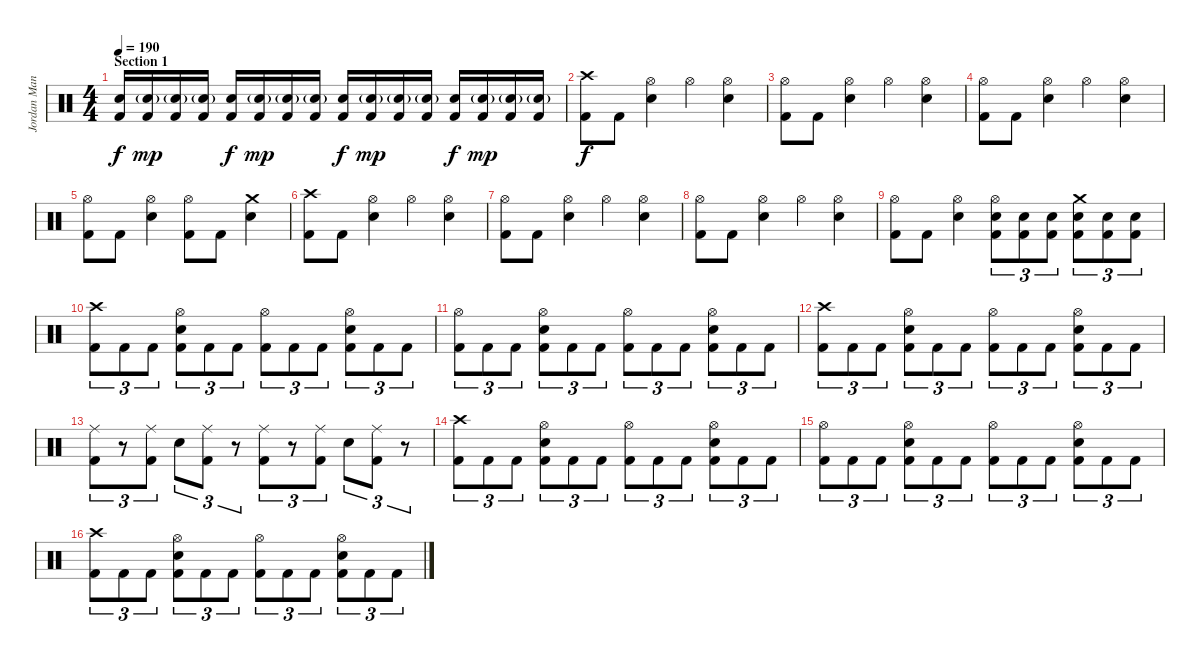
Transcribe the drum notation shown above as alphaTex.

\track ("Jordan Mancino" "Jordan Man") {instrument percussion}
\staff {score}
\articulation defaults
\ts (4 4)
\section ("" "Section 1")
\tempo 190
\clef neutral
\ks c
("Electric Snare (hit)" "Kick (hit) 2").16{dy f} ("Electric Snare (hit)"{g} "Kick (hit) 2").16{dy mp} ("Electric Snare (hit)"{g} "Kick (hit) 2").16 ("Electric Snare (hit)"{g} "Kick (hit) 2").16 ("Electric Snare (hit)" "Kick (hit) 2").16{dy f} ("Electric Snare (hit)"{g} "Kick (hit) 2").16{dy mp} ("Electric Snare (hit)"{g} "Kick (hit) 2").16 ("Electric Snare (hit)"{g} "Kick (hit) 2").16 ("Electric Snare (hit)" "Kick (hit) 2").16{dy f} ("Electric Snare (hit)"{g} "Kick (hit) 2").16{dy mp} ("Electric Snare (hit)"{g} "Kick (hit) 2").16 ("Electric Snare (hit)"{g} "Kick (hit) 2").16 ("Electric Snare (hit)" "Kick (hit) 2").16{dy f} ("Electric Snare (hit)"{g} "Kick (hit) 2").16{dy mp} ("Electric Snare (hit)"{g} "Kick (hit) 2").16 ("Electric Snare (hit)"{g} "Kick (hit) 2").16 |
("Crash high (hit)" "Kick (hit) 2").8{dy f} "Kick (hit) 2".8 ("Hi-Hat (open)" "Electric Snare (hit)").4 "Hi-Hat (open)".4 ("Hi-Hat (open)" "Electric Snare (hit)").4 |
("Hi-Hat (open)" "Kick (hit) 2").8 "Kick (hit) 2".8 ("Hi-Hat (open)" "Electric Snare (hit)").4 "Hi-Hat (open)".4 ("Hi-Hat (open)" "Electric Snare (hit)").4 |
("Hi-Hat (open)" "Kick (hit) 2").8 "Kick (hit) 2".8 ("Hi-Hat (open)" "Electric Snare (hit)").4 "Hi-Hat (open)".4 ("Hi-Hat (open)" "Electric Snare (hit)").4 |
("Hi-Hat (open)" "Kick (hit) 2").8 "Kick (hit) 2".8 ("Hi-Hat (open)" "Electric Snare (hit)").4 ("Hi-Hat (open)" "Kick (hit) 2").8 "Kick (hit) 2".8 ("Crash medium (hit)" "Electric Snare (hit)").4 |
("Crash high (hit)" "Kick (hit) 2").8 "Kick (hit) 2".8 ("Hi-Hat (open)" "Electric Snare (hit)").4 "Hi-Hat (open)".4 ("Hi-Hat (open)" "Electric Snare (hit)").4 |
("Hi-Hat (open)" "Kick (hit) 2").8 "Kick (hit) 2".8 ("Hi-Hat (open)" "Electric Snare (hit)").4 "Hi-Hat (open)".4 ("Hi-Hat (open)" "Electric Snare (hit)").4 |
("Hi-Hat (open)" "Kick (hit) 2").8 "Kick (hit) 2".8 ("Hi-Hat (open)" "Electric Snare (hit)").4 "Hi-Hat (open)".4 ("Hi-Hat (open)" "Electric Snare (hit)").4 |
("Hi-Hat (open)" "Kick (hit) 2").8 "Kick (hit) 2".8 ("Hi-Hat (open)" "Electric Snare (hit)").4 ("Hi-Hat (open)" "Electric Snare (hit)" "Kick (hit) 2").8{tu (3 2)} ("Electric Snare (hit)" "Kick (hit) 2").8{tu (3 2)} ("Electric Snare (hit)" "Kick (hit) 2").8{tu (3 2)} ("Crash medium (hit)" "Electric Snare (hit)" "Kick (hit) 2").8{tu (3 2)} ("Electric Snare (hit)" "Kick (hit) 2").8{tu (3 2)} ("Electric Snare (hit)" "Kick (hit) 2").8{tu (3 2)} |
("Crash high (hit)" "Kick (hit) 2").8{tu (3 2)} "Kick (hit) 2".8{tu (3 2)} "Kick (hit) 2".8{tu (3 2)} ("Hi-Hat (open)" "Electric Snare (hit)" "Kick (hit) 2").8{tu (3 2)} "Kick (hit) 2".8{tu (3 2)} "Kick (hit) 2".8{tu (3 2)} ("Hi-Hat (open)" "Kick (hit) 2").8{tu (3 2)} "Kick (hit) 2".8{tu (3 2)} "Kick (hit) 2".8{tu (3 2)} ("Hi-Hat (open)" "Electric Snare (hit)" "Kick (hit) 2").8{tu (3 2)} "Kick (hit) 2".8{tu (3 2)} "Kick (hit) 2".8{tu (3 2)} |
("Hi-Hat (open)" "Kick (hit) 2").8{tu (3 2)} "Kick (hit) 2".8{tu (3 2)} "Kick (hit) 2".8{tu (3 2)} ("Hi-Hat (open)" "Electric Snare (hit)" "Kick (hit) 2").8{tu (3 2)} "Kick (hit) 2".8{tu (3 2)} "Kick (hit) 2".8{tu (3 2)} ("Hi-Hat (open)" "Kick (hit) 2").8{tu (3 2)} "Kick (hit) 2".8{tu (3 2)} "Kick (hit) 2".8{tu (3 2)} ("Hi-Hat (open)" "Electric Snare (hit)" "Kick (hit) 2").8{tu (3 2)} "Kick (hit) 2".8{tu (3 2)} "Kick (hit) 2".8{tu (3 2)} |
("Crash high (hit)" "Kick (hit) 2").8{tu (3 2)} "Kick (hit) 2".8{tu (3 2)} "Kick (hit) 2".8{tu (3 2)} ("Hi-Hat (open)" "Electric Snare (hit)" "Kick (hit) 2").8{tu (3 2)} "Kick (hit) 2".8{tu (3 2)} "Kick (hit) 2".8{tu (3 2)} ("Hi-Hat (open)" "Kick (hit) 2").8{tu (3 2)} "Kick (hit) 2".8{tu (3 2)} "Kick (hit) 2".8{tu (3 2)} ("Hi-Hat (open)" "Electric Snare (hit)" "Kick (hit) 2").8{tu (3 2)} "Kick (hit) 2".8{tu (3 2)} "Kick (hit) 2".8{tu (3 2)} |
("Ride (middle)" "Kick (hit) 2").8{tu (3 2)} r.8{tu (3 2)} ("Ride (middle)" "Kick (hit) 2").8{tu (3 2)} "Electric Snare (hit)".8{tu (3 2)} ("Ride (middle)" "Kick (hit) 2").8{tu (3 2)} r.8{tu (3 2)} ("Ride (middle)" "Kick (hit) 2").8{tu (3 2)} r.8{tu (3 2)} ("Ride (middle)" "Kick (hit) 2").8{tu (3 2)} "Electric Snare (hit)".8{tu (3 2)} ("Ride (middle)" "Kick (hit) 2").8{tu (3 2)} r.8{tu (3 2)} |
("Crash high (hit)" "Kick (hit) 2").8{tu (3 2)} "Kick (hit) 2".8{tu (3 2)} "Kick (hit) 2".8{tu (3 2)} ("Hi-Hat (open)" "Electric Snare (hit)" "Kick (hit) 2").8{tu (3 2)} "Kick (hit) 2".8{tu (3 2)} "Kick (hit) 2".8{tu (3 2)} ("Hi-Hat (open)" "Kick (hit) 2").8{tu (3 2)} "Kick (hit) 2".8{tu (3 2)} "Kick (hit) 2".8{tu (3 2)} ("Hi-Hat (open)" "Electric Snare (hit)" "Kick (hit) 2").8{tu (3 2)} "Kick (hit) 2".8{tu (3 2)} "Kick (hit) 2".8{tu (3 2)} |
("Hi-Hat (open)" "Kick (hit) 2").8{tu (3 2)} "Kick (hit) 2".8{tu (3 2)} "Kick (hit) 2".8{tu (3 2)} ("Hi-Hat (open)" "Electric Snare (hit)" "Kick (hit) 2").8{tu (3 2)} "Kick (hit) 2".8{tu (3 2)} "Kick (hit) 2".8{tu (3 2)} ("Hi-Hat (open)" "Kick (hit) 2").8{tu (3 2)} "Kick (hit) 2".8{tu (3 2)} "Kick (hit) 2".8{tu (3 2)} ("Hi-Hat (open)" "Electric Snare (hit)" "Kick (hit) 2").8{tu (3 2)} "Kick (hit) 2".8{tu (3 2)} "Kick (hit) 2".8{tu (3 2)} |
("Crash high (hit)" "Kick (hit) 2").8{tu (3 2)} "Kick (hit) 2".8{tu (3 2)} "Kick (hit) 2".8{tu (3 2)} ("Hi-Hat (open)" "Electric Snare (hit)" "Kick (hit) 2").8{tu (3 2)} "Kick (hit) 2".8{tu (3 2)} "Kick (hit) 2".8{tu (3 2)} ("Hi-Hat (open)" "Kick (hit) 2").8{tu (3 2)} "Kick (hit) 2".8{tu (3 2)} "Kick (hit) 2".8{tu (3 2)} ("Hi-Hat (open)" "Electric Snare (hit)" "Kick (hit) 2").8{tu (3 2)} "Kick (hit) 2".8{tu (3 2)} "Kick (hit) 2".8{tu (3 2)}
